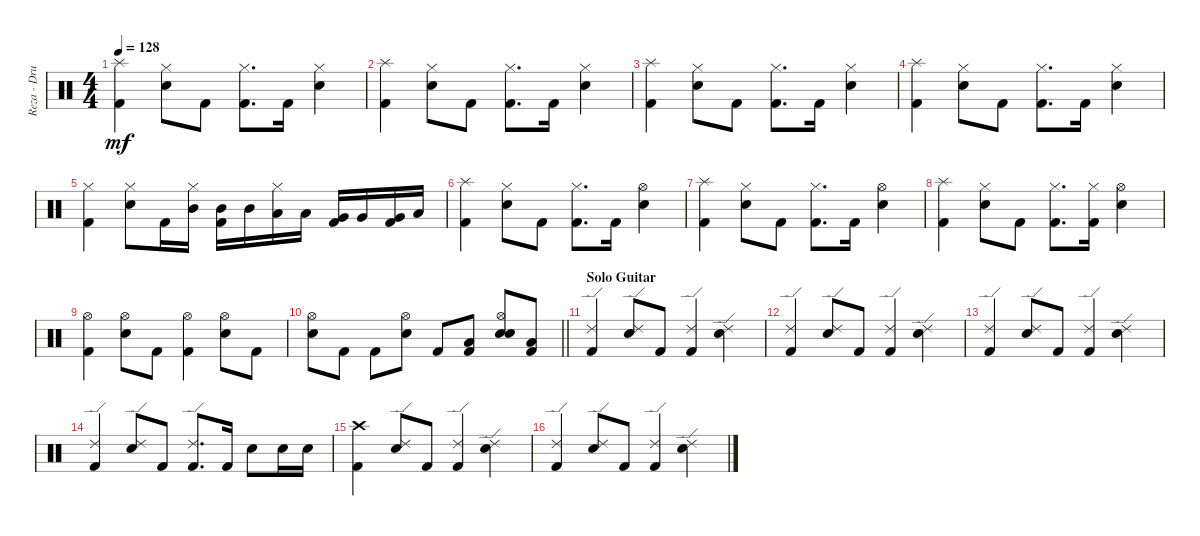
\track ("Reza - Drum" "Reza - Dru") {instrument percussion}
\staff {score}
\articulation defaults
\ts (4 4)
\tempo 128
\clef neutral
\ks c
("Splash (hit)" "Kick (hit) 2").4{dy mf} ("Hi-Hat (closed)" "Electric Snare (hit)").8 "Kick (hit) 2".8 ("Hi-Hat (closed)" "Kick (hit) 2").8{d} "Kick (hit) 2".16 ("Hi-Hat (closed)" "Electric Snare (hit)").4 |
("Splash (hit)" "Kick (hit) 2").4 ("Hi-Hat (closed)" "Electric Snare (hit)").8 "Kick (hit) 2".8 ("Hi-Hat (closed)" "Kick (hit) 2").8{d} "Kick (hit) 2".16 ("Hi-Hat (closed)" "Electric Snare (hit)").4 |
("Splash (hit)" "Kick (hit) 2").4 ("Hi-Hat (closed)" "Electric Snare (hit)").8 "Kick (hit) 2".8 ("Hi-Hat (closed)" "Kick (hit) 2").8{d} "Kick (hit) 2".16 ("Hi-Hat (closed)" "Electric Snare (hit)").4 |
("Splash (hit)" "Kick (hit) 2").4 ("Hi-Hat (closed)" "Electric Snare (hit)").8 "Kick (hit) 2".8 ("Hi-Hat (closed)" "Kick (hit) 2").8{d} "Kick (hit) 2".16 ("Hi-Hat (closed)" "Electric Snare (hit)").4 |
("Hi-Hat (closed)" "Kick (hit) 2").4 ("Hi-Hat (closed)" "Electric Snare (hit)").8 "Kick (hit) 2".16 ("Hi-Hat (closed)" "Mid Tom (hit)").16 ("Mid Tom (hit)" "Kick (hit) 2").16 "Mid Tom (hit)".16 ("Hi-Hat (closed)" "Low Tom (hit)").16 "Low Tom (hit)".16 ("Very Low Tom (hit)" "Kick (hit) 2").16 "Very Low Tom (hit)".16 ("Very Low Tom (hit)" "Kick (hit) 2").16 "Low Floor Tom (hit)".16 |
("Splash (hit)" "Kick (hit) 2").4 ("Hi-Hat (closed)" "Electric Snare (hit)").8 "Kick (hit) 2".8 ("Hi-Hat (closed)" "Kick (hit) 2").8{d} "Kick (hit) 2".16 ("Hi-Hat (open)" "Electric Snare (hit)").4 |
("Splash (hit)" "Kick (hit) 2").4 ("Hi-Hat (closed)" "Electric Snare (hit)").8 "Kick (hit) 2".8 ("Hi-Hat (closed)" "Kick (hit) 2").8{d} "Kick (hit) 2".16 ("Hi-Hat (open)" "Electric Snare (hit)").4 |
("Splash (hit)" "Kick (hit) 2").4 ("Hi-Hat (closed)" "Electric Snare (hit)").8 "Kick (hit) 2".8 ("Hi-Hat (closed)" "Kick (hit) 2").8{d} ("Hi-Hat (closed)" "Kick (hit) 2").16 ("Hi-Hat (open)" "Electric Snare (hit)").4 |
("Hi-Hat (open)" "Kick (hit) 2").4 ("Hi-Hat (open)" "Electric Snare (hit)").8 "Kick (hit) 2".8 ("Hi-Hat (open)" "Kick (hit) 2").4 ("Hi-Hat (open)" "Electric Snare (hit)").8 "Kick (hit) 2".8 |
\barLineRight lightlight
("Hi-Hat (open)" "Electric Snare (hit)").8 "Kick (hit) 2".8 "Kick (hit) 2".8 ("Hi-Hat (open)" "Electric Snare (hit)").8 "Kick (hit) 2".8 ("Low Tom (hit)" "Kick (hit) 2").8 ("Hi-Hat (open)" "Snare (hit) 2" "Electric Snare (hit)").8 ("Low Tom (hit)" "Kick (hit) 2").8 |
\section ("" "Solo Guitar")
("Ride (edge) 2" "Kick (hit) 2").4 ("Ride (edge) 2" "Electric Snare (hit)").8 "Kick (hit) 2".8 ("Ride (edge) 2" "Kick (hit) 2").4 ("Ride (edge) 2" "Electric Snare (hit)").4 |
("Ride (edge) 2" "Kick (hit) 2").4 ("Ride (edge) 2" "Electric Snare (hit)").8 "Kick (hit) 2".8 ("Ride (edge) 2" "Kick (hit) 2").4 ("Ride (edge) 2" "Electric Snare (hit)").4 |
("Ride (edge) 2" "Kick (hit) 2").4 ("Ride (edge) 2" "Electric Snare (hit)").8 "Kick (hit) 2".8 ("Ride (edge) 2" "Kick (hit) 2").4 ("Ride (edge) 2" "Electric Snare (hit)").4 |
("Ride (edge) 2" "Kick (hit) 2").4 ("Ride (edge) 2" "Electric Snare (hit)").8 "Kick (hit) 2".8 ("Ride (edge) 2" "Kick (hit) 2").8{d} "Kick (hit) 2".16 "Electric Snare (hit)".8 "Electric Snare (hit)".16 "Electric Snare (hit)".16 |
("Crash high (hit)" "Kick (hit) 2").4 ("Ride (edge) 2" "Electric Snare (hit)").8 "Kick (hit) 2".8 ("Ride (edge) 2" "Kick (hit) 2").4 ("Ride (edge) 2" "Electric Snare (hit)").4 |
("Ride (edge) 2" "Kick (hit) 2").4 ("Ride (edge) 2" "Electric Snare (hit)").8 "Kick (hit) 2".8 ("Ride (edge) 2" "Kick (hit) 2").4 ("Ride (edge) 2" "Electric Snare (hit)").4
